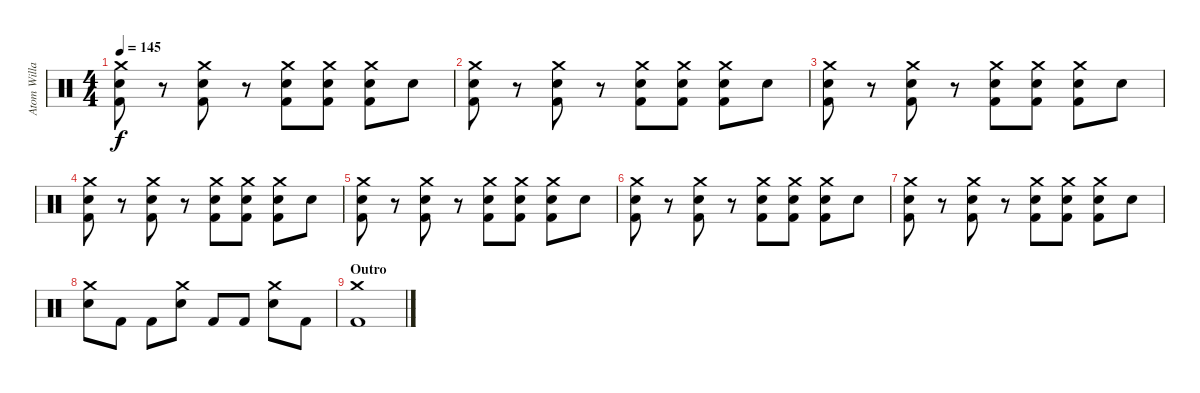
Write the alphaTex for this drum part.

\track ("Atom Willard (Drums)" "Atom Willa") {instrument percussion}
\staff {score}
\articulation defaults
\ts (4 4)
\tempo 145
\clef neutral
\ks c
("Crash medium (hit)" "Electric Snare (hit)" "Kick (hit) 2").8{dy f} r.8 ("Crash medium (hit)" "Electric Snare (hit)" "Kick (hit) 2").8 r.8 ("Crash medium (hit)" "Electric Snare (hit)" "Kick (hit) 2").8 ("Crash medium (hit)" "Electric Snare (hit)" "Kick (hit) 2").8 ("Crash medium (hit)" "Electric Snare (hit)" "Kick (hit) 2").8 "Snare (hit)".8 |
("Crash medium (hit)" "Electric Snare (hit)" "Kick (hit) 2").8 r.8 ("Crash medium (hit)" "Electric Snare (hit)" "Kick (hit) 2").8 r.8 ("Crash medium (hit)" "Electric Snare (hit)" "Kick (hit) 2").8 ("Crash medium (hit)" "Electric Snare (hit)" "Kick (hit) 2").8 ("Crash medium (hit)" "Electric Snare (hit)" "Kick (hit) 2").8 "Snare (hit)".8 |
("Crash medium (hit)" "Electric Snare (hit)" "Kick (hit) 2").8 r.8 ("Crash medium (hit)" "Electric Snare (hit)" "Kick (hit) 2").8 r.8 ("Crash medium (hit)" "Electric Snare (hit)" "Kick (hit) 2").8 ("Crash medium (hit)" "Electric Snare (hit)" "Kick (hit) 2").8 ("Crash medium (hit)" "Electric Snare (hit)" "Kick (hit) 2").8 "Snare (hit)".8 |
("Crash medium (hit)" "Electric Snare (hit)" "Kick (hit) 2").8 r.8 ("Crash medium (hit)" "Electric Snare (hit)" "Kick (hit) 2").8 r.8 ("Crash medium (hit)" "Electric Snare (hit)" "Kick (hit) 2").8 ("Crash medium (hit)" "Electric Snare (hit)" "Kick (hit) 2").8 ("Crash medium (hit)" "Electric Snare (hit)" "Kick (hit) 2").8 "Snare (hit)".8 |
("Crash medium (hit)" "Electric Snare (hit)" "Kick (hit) 2").8 r.8 ("Crash medium (hit)" "Electric Snare (hit)" "Kick (hit) 2").8 r.8 ("Crash medium (hit)" "Electric Snare (hit)" "Kick (hit) 2").8 ("Crash medium (hit)" "Electric Snare (hit)" "Kick (hit) 2").8 ("Crash medium (hit)" "Electric Snare (hit)" "Kick (hit) 2").8 "Snare (hit)".8 |
("Crash medium (hit)" "Electric Snare (hit)" "Kick (hit) 2").8 r.8 ("Crash medium (hit)" "Electric Snare (hit)" "Kick (hit) 2").8 r.8 ("Crash medium (hit)" "Electric Snare (hit)" "Kick (hit) 2").8 ("Crash medium (hit)" "Electric Snare (hit)" "Kick (hit) 2").8 ("Crash medium (hit)" "Electric Snare (hit)" "Kick (hit) 2").8 "Snare (hit)".8 |
("Crash medium (hit)" "Electric Snare (hit)" "Kick (hit) 2").8 r.8 ("Crash medium (hit)" "Electric Snare (hit)" "Kick (hit) 2").8 r.8 ("Crash medium (hit)" "Electric Snare (hit)" "Kick (hit) 2").8 ("Crash medium (hit)" "Electric Snare (hit)" "Kick (hit) 2").8 ("Crash medium (hit)" "Electric Snare (hit)" "Kick (hit) 2").8 "Snare (hit)".8 |
("Crash medium (hit)" "Electric Snare (hit)").8 "Kick (hit) 2".8 "Kick (hit) 2".8 ("Crash medium (hit)" "Electric Snare (hit)").8 "Kick (hit) 2".8 "Kick (hit) 2".8 ("Crash medium (hit)" "Electric Snare (hit)").8 "Kick (hit) 2".8 |
\section ("" "Outro")
("Crash medium (hit)" "Kick (hit) 2").1
